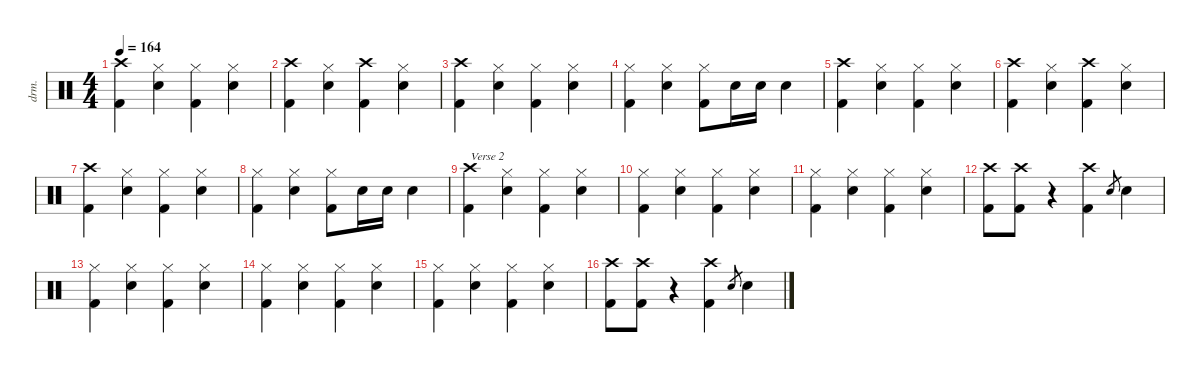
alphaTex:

\defaultSystemsLayout 4
\hideDynamics
\bracketExtendMode nobrackets
\track ("Drums" "drm.") {instrument percussion}
\staff {score}
\articulation defaults
\ts (4 4)
\tempo 164
\clef neutral
\ks c
("Crash high (hit)" "Kick (hit) 2").4{dy fff} ("Hi-Hat (closed)" "Snare (hit) 2").4{dy f} ("Hi-Hat (closed)" "Kick (hit) 2").4 ("Hi-Hat (closed)" "Snare (hit) 2").4 |
("Crash high (hit)" "Kick (hit) 2").4{dy fff} ("Hi-Hat (closed)" "Snare (hit) 2").4{dy f} ("Crash high (hit)" "Kick (hit) 2").4{dy fff} ("Hi-Hat (closed)" "Snare (hit) 2").4{dy f} |
("Crash high (hit)" "Kick (hit) 2").4{dy fff} ("Hi-Hat (closed)" "Snare (hit) 2").4{dy f} ("Hi-Hat (closed)" "Kick (hit) 2").4 ("Hi-Hat (closed)" "Snare (hit) 2").4 |
("Hi-Hat (closed)" "Kick (hit) 2").4 ("Hi-Hat (closed)" "Snare (hit) 2").4 ("Hi-Hat (closed)" "Kick (hit) 2").8 "Snare (hit) 2".16 "Snare (hit) 2".16{dy mf} "Snare (hit) 2".4{dy f} |
("Crash high (hit)" "Kick (hit) 2").4{dy fff} ("Hi-Hat (closed)" "Snare (hit) 2").4{dy f} ("Hi-Hat (closed)" "Kick (hit) 2").4 ("Hi-Hat (closed)" "Snare (hit) 2").4 |
("Crash high (hit)" "Kick (hit) 2").4{dy fff} ("Hi-Hat (closed)" "Snare (hit) 2").4{dy f} ("Crash high (hit)" "Kick (hit) 2").4{dy fff} ("Hi-Hat (closed)" "Snare (hit) 2").4{dy f} |
("Crash high (hit)" "Kick (hit) 2").4{dy fff} ("Hi-Hat (closed)" "Snare (hit) 2").4{dy f} ("Hi-Hat (closed)" "Kick (hit) 2").4 ("Hi-Hat (closed)" "Snare (hit) 2").4 |
("Hi-Hat (closed)" "Kick (hit) 2").4 ("Hi-Hat (closed)" "Snare (hit) 2").4 ("Hi-Hat (closed)" "Kick (hit) 2").8 "Snare (hit) 2".16 "Snare (hit) 2".16{dy mf} "Snare (hit) 2".4{dy f} |
("Crash high (hit)" "Kick (hit) 2").4{txt "Verse 2" dy fff} ("Hi-Hat (closed)" "Snare (hit) 2").4{dy f} ("Hi-Hat (closed)" "Kick (hit) 2").4 ("Hi-Hat (closed)" "Snare (hit) 2").4 |
("Hi-Hat (closed)" "Kick (hit) 2").4 ("Hi-Hat (closed)" "Snare (hit) 2").4 ("Hi-Hat (closed)" "Kick (hit) 2").4 ("Hi-Hat (closed)" "Snare (hit) 2").4 |
("Hi-Hat (closed)" "Kick (hit) 2").4 ("Hi-Hat (closed)" "Snare (hit) 2").4 ("Hi-Hat (closed)" "Kick (hit) 2").4 ("Hi-Hat (closed)" "Snare (hit) 2").4 |
("Crash high (hit)" "Kick (hit) 2").8{dy fff} ("Crash high (hit)" "Kick (hit) 2").8 r.4 ("Crash high (hit)" "Kick (hit) 2").4 "Snare (hit) 2".8{gr dy mf} "Snare (hit) 2".4{dy f} |
("Hi-Hat (closed)" "Kick (hit) 2").4 ("Hi-Hat (closed)" "Snare (hit) 2").4 ("Hi-Hat (closed)" "Kick (hit) 2").4 ("Hi-Hat (closed)" "Snare (hit) 2").4 |
("Hi-Hat (closed)" "Kick (hit) 2").4 ("Hi-Hat (closed)" "Snare (hit) 2").4 ("Hi-Hat (closed)" "Kick (hit) 2").4 ("Hi-Hat (closed)" "Snare (hit) 2").4 |
("Hi-Hat (closed)" "Kick (hit) 2").4 ("Hi-Hat (closed)" "Snare (hit) 2").4 ("Hi-Hat (closed)" "Kick (hit) 2").4 ("Hi-Hat (closed)" "Snare (hit) 2").4 |
("Crash high (hit)" "Kick (hit) 2").8{dy fff} ("Crash high (hit)" "Kick (hit) 2").8 r.4 ("Crash high (hit)" "Kick (hit) 2").4 "Snare (hit) 2".8{gr dy mf} "Snare (hit) 2".4{dy f}
